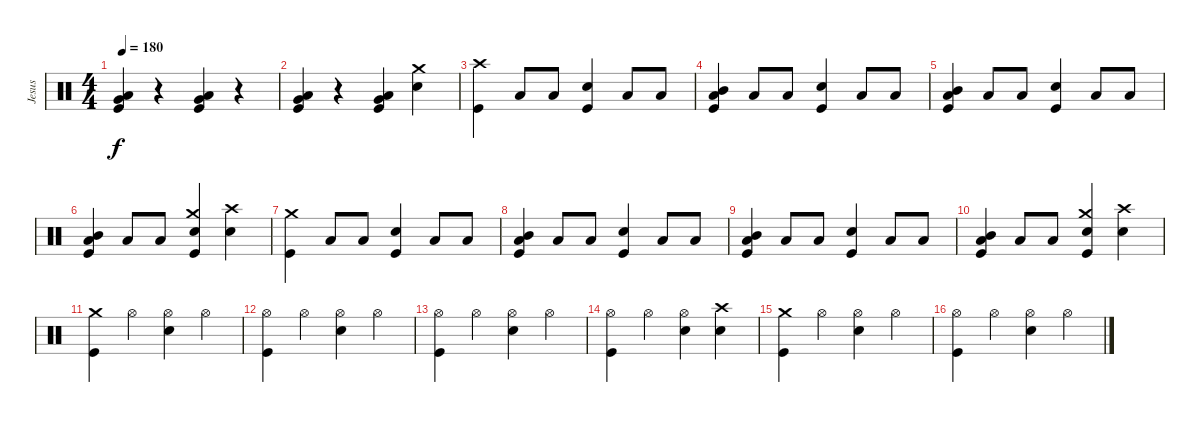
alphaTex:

\track ("Jesus" "Jesus") {instrument percussion}
\staff {score}
\articulation defaults
\ts (4 4)
\tempo 180
\clef neutral
\ks c
("Low Tom (hit)" "Very Low Tom (hit)" "Kick (hit)").4{dy f} r.4 ("Low Tom (hit)" "Very Low Tom (hit)" "Kick (hit)").4 r.4 |
("Low Tom (hit)" "Very Low Tom (hit)" "Kick (hit)").4 r.4 ("Low Tom (hit)" "Very Low Tom (hit)" "Kick (hit)").4 ("Crash medium (hit)" "Snare (hit) 2").4 |
("Crash high (hit)" "Kick (hit)").4 "Low Tom (hit)".8 "Low Tom (hit)".8 ("Snare (hit) 2" "Kick (hit)").4 "Low Tom (hit)".8 "Low Tom (hit)".8 |
("Mid Tom (hit)" "Low Tom (hit)" "Kick (hit)").4 "Low Tom (hit)".8 "Low Tom (hit)".8 ("Snare (hit) 2" "Kick (hit)").4 "Low Tom (hit)".8 "Low Tom (hit)".8 |
("Mid Tom (hit)" "Low Tom (hit)" "Kick (hit)").4 "Low Tom (hit)".8 "Low Tom (hit)".8 ("Snare (hit) 2" "Kick (hit)").4 "Low Tom (hit)".8 "Low Tom (hit)".8 |
("Mid Tom (hit)" "Low Tom (hit)" "Kick (hit)").4 "Low Tom (hit)".8 "Low Tom (hit)".8 ("Crash medium (hit)" "Snare (hit) 2" "Kick (hit)").4 ("Crash high (hit)" "Snare (hit) 2").4 |
("Crash medium (hit)" "Kick (hit)").4 "Low Tom (hit)".8 "Low Tom (hit)".8 ("Snare (hit) 2" "Kick (hit)").4 "Low Tom (hit)".8 "Low Tom (hit)".8 |
("Mid Tom (hit)" "Low Tom (hit)" "Kick (hit)").4 "Low Tom (hit)".8 "Low Tom (hit)".8 ("Snare (hit) 2" "Kick (hit)").4 "Low Tom (hit)".8 "Low Tom (hit)".8 |
("Mid Tom (hit)" "Low Tom (hit)" "Kick (hit)").4 "Low Tom (hit)".8 "Low Tom (hit)".8 ("Snare (hit) 2" "Kick (hit)").4 "Low Tom (hit)".8 "Low Tom (hit)".8 |
("Mid Tom (hit)" "Low Tom (hit)" "Kick (hit)").4 "Low Tom (hit)".8 "Low Tom (hit)".8 ("Crash medium (hit)" "Snare (hit) 2" "Kick (hit)").4 ("Crash high (hit)" "Snare (hit) 2").4 |
("Crash medium (hit)" "Kick (hit)").4 "Hi-Hat (open)".4 ("Hi-Hat (open)" "Snare (hit) 2").4 "Hi-Hat (open)".4 |
("Hi-Hat (open)" "Kick (hit)").4 "Hi-Hat (open)".4 ("Hi-Hat (open)" "Snare (hit) 2").4 "Hi-Hat (open)".4 |
("Hi-Hat (open)" "Kick (hit)").4 "Hi-Hat (open)".4 ("Hi-Hat (open)" "Snare (hit) 2").4 "Hi-Hat (open)".4 |
("Hi-Hat (open)" "Kick (hit)").4 "Hi-Hat (open)".4 ("Hi-Hat (open)" "Snare (hit) 2").4 ("Crash high (hit)" "Snare (hit) 2").4 |
("Crash medium (hit)" "Kick (hit)").4 "Hi-Hat (open)".4 ("Hi-Hat (open)" "Snare (hit) 2").4 "Hi-Hat (open)".4 |
("Hi-Hat (open)" "Kick (hit)").4 "Hi-Hat (open)".4 ("Hi-Hat (open)" "Snare (hit) 2").4 "Hi-Hat (open)".4
